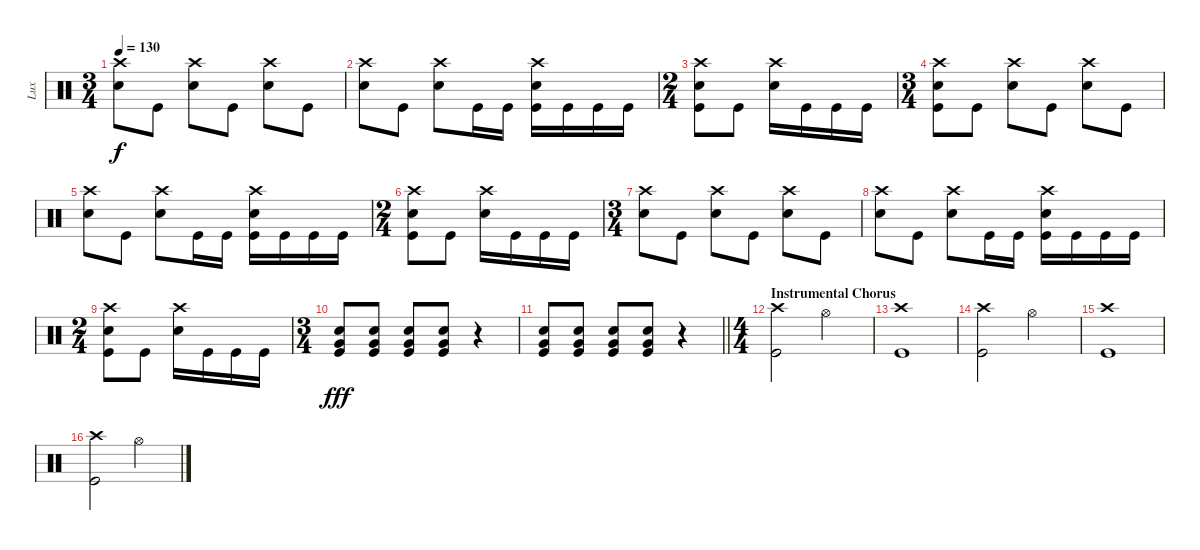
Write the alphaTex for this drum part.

\track ("Lux" "Lux") {instrument percussion}
\staff {score}
\articulation defaults
\ts (3 4)
\tempo 130
\clef neutral
\ks c
("Crash high (hit)" "Snare (hit) 2").8{dy f} "Kick (hit)".8 ("Crash high (hit)" "Snare (hit) 2").8 "Kick (hit)".8 ("Crash high (hit)" "Snare (hit) 2").8 "Kick (hit)".8 |
("Crash high (hit)" "Snare (hit) 2").8 "Kick (hit)".8 ("Crash high (hit)" "Snare (hit) 2").8 "Kick (hit)".16 "Kick (hit)".16 ("Crash high (hit)" "Snare (hit) 2" "Kick (hit)").16 "Kick (hit)".16 "Kick (hit)".16 "Kick (hit)".16 |
\ts (2 4)
("Crash high (hit)" "Snare (hit) 2" "Kick (hit)").8 "Kick (hit)".8 ("Crash high (hit)" "Snare (hit) 2").16 "Kick (hit)".16 "Kick (hit)".16 "Kick (hit)".16 |
\ts (3 4)
("Crash high (hit)" "Snare (hit) 2" "Kick (hit)").8 "Kick (hit)".8 ("Crash high (hit)" "Snare (hit) 2").8 "Kick (hit)".8 ("Crash high (hit)" "Snare (hit) 2").8 "Kick (hit)".8 |
("Crash high (hit)" "Snare (hit) 2").8 "Kick (hit)".8 ("Crash high (hit)" "Snare (hit) 2").8 "Kick (hit)".16 "Kick (hit)".16 ("Crash high (hit)" "Snare (hit) 2" "Kick (hit)").16 "Kick (hit)".16 "Kick (hit)".16 "Kick (hit)".16 |
\ts (2 4)
("Crash high (hit)" "Snare (hit) 2" "Kick (hit)").8 "Kick (hit)".8 ("Crash high (hit)" "Snare (hit) 2").16 "Kick (hit)".16 "Kick (hit)".16 "Kick (hit)".16 |
\ts (3 4)
("Crash high (hit)" "Snare (hit) 2").8 "Kick (hit)".8 ("Crash high (hit)" "Snare (hit) 2").8 "Kick (hit)".8 ("Crash high (hit)" "Snare (hit) 2").8 "Kick (hit)".8 |
("Crash high (hit)" "Snare (hit) 2").8 "Kick (hit)".8 ("Crash high (hit)" "Snare (hit) 2").8 "Kick (hit)".16 "Kick (hit)".16 ("Crash high (hit)" "Snare (hit) 2" "Kick (hit)").16 "Kick (hit)".16 "Kick (hit)".16 "Kick (hit)".16 |
\ts (2 4)
("Crash high (hit)" "Snare (hit) 2" "Kick (hit)").8 "Kick (hit)".8 ("Crash high (hit)" "Snare (hit) 2").16 "Kick (hit)".16 "Kick (hit)".16 "Kick (hit)".16 |
\ts (3 4)
("Very Low Tom (hit)" "Snare (hit) 2" "Kick (hit)").8{dy fff} ("Very Low Tom (hit)" "Snare (hit) 2" "Kick (hit)").8 ("Very Low Tom (hit)" "Snare (hit) 2" "Kick (hit)").8 ("Very Low Tom (hit)" "Snare (hit) 2" "Kick (hit)").8 r.4 |
\barLineRight lightlight
("Very Low Tom (hit)" "Snare (hit) 2" "Kick (hit)").8 ("Very Low Tom (hit)" "Snare (hit) 2" "Kick (hit)").8 ("Very Low Tom (hit)" "Snare (hit) 2" "Kick (hit)").8 ("Very Low Tom (hit)" "Snare (hit) 2" "Kick (hit)").8 r.4 |
\ts (4 4)
\section ("" "Instrumental Chorus")
("Crash high (hit)" "Kick (hit)").2 "Hi-Hat (open)".2 |
("Crash high (hit)" "Kick (hit)").1 |
("Crash high (hit)" "Kick (hit)").2 "Hi-Hat (open)".2 |
("Crash high (hit)" "Kick (hit)").1 |
("Crash high (hit)" "Kick (hit)").2 "Hi-Hat (open)".2
